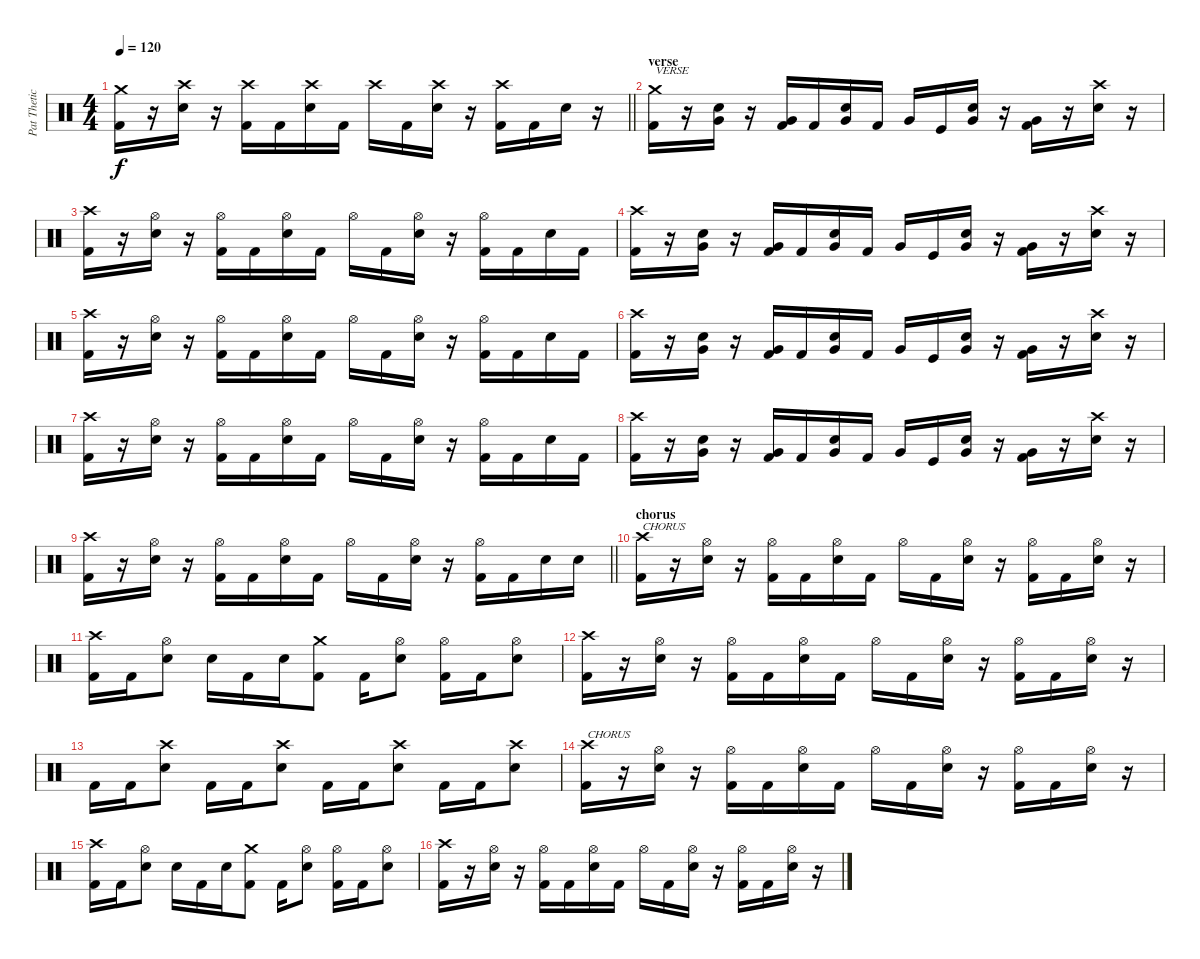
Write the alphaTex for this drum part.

\track ("Pat Thetic" "Pat Thetic") {instrument percussion}
\staff {score}
\articulation defaults
\ts (4 4)
\tempo 120
\clef neutral
\barLineRight lightlight
\ks c
("Crash medium (hit)" "Kick (hit) 2").16{dy f} r.16 ("Crash high (hit)" "Snare (hit) 2").16 r.16 ("Crash high (hit)" "Kick (hit) 2").16 "Kick (hit) 2".16 ("Crash high (hit)" "Snare (hit) 2").16 "Kick (hit) 2".16 "Crash high (hit)".16 "Kick (hit) 2".16 ("Crash high (hit)" "Snare (hit) 2").16 r.16 ("Crash high (hit)" "Kick (hit) 2").16 "Kick (hit) 2".16 "Snare (hit) 2".16 r.16 |
\section ("" "verse")
("Crash medium (hit)" "Kick (hit) 2").16{txt "VERSE"} r.16 ("Snare (hit) 2" "Very Low Tom (hit)").16 r.16 ("Very Low Tom (hit)" "Kick (hit) 2").16 "Kick (hit) 2".16 ("Snare (hit) 2" "Very Low Tom (hit)").16 "Kick (hit) 2".16 "Very Low Tom (hit)".16 "Kick (hit)".16 ("Snare (hit) 2" "Very Low Tom (hit)").16 r.16 ("Very Low Tom (hit)" "Kick (hit) 2").16 r.16 ("Crash high (hit)" "Snare (hit) 2").16 r.16 |
("Crash high (hit)" "Kick (hit) 2").16 r.16 ("Hi-Hat (open)" "Snare (hit) 2").16 r.16 ("Hi-Hat (open)" "Kick (hit) 2").16 "Kick (hit) 2".16 ("Hi-Hat (open)" "Snare (hit) 2").16 "Kick (hit) 2".16 "Hi-Hat (open)".16 "Kick (hit) 2".16 ("Hi-Hat (open)" "Snare (hit) 2").16 r.16 ("Hi-Hat (open)" "Kick (hit) 2").16 "Kick (hit) 2".16 "Snare (hit) 2".16 "Kick (hit) 2".16 |
("Crash high (hit)" "Kick (hit) 2").16 r.16 ("Snare (hit) 2" "Very Low Tom (hit)").16 r.16 ("Very Low Tom (hit)" "Kick (hit) 2").16 "Kick (hit) 2".16 ("Snare (hit) 2" "Very Low Tom (hit)").16 "Kick (hit) 2".16 "Very Low Tom (hit)".16 "Kick (hit)".16 ("Snare (hit) 2" "Very Low Tom (hit)").16 r.16 ("Very Low Tom (hit)" "Kick (hit) 2").16 r.16 ("Crash high (hit)" "Snare (hit) 2").16 r.16 |
("Crash high (hit)" "Kick (hit) 2").16 r.16 ("Hi-Hat (open)" "Snare (hit) 2").16 r.16 ("Hi-Hat (open)" "Kick (hit) 2").16 "Kick (hit) 2".16 ("Hi-Hat (open)" "Snare (hit) 2").16 "Kick (hit) 2".16 "Hi-Hat (open)".16 "Kick (hit) 2".16 ("Hi-Hat (open)" "Snare (hit) 2").16 r.16 ("Hi-Hat (open)" "Kick (hit) 2").16 "Kick (hit) 2".16 "Snare (hit) 2".16 "Kick (hit) 2".16 |
("Crash high (hit)" "Kick (hit) 2").16 r.16 ("Snare (hit) 2" "Very Low Tom (hit)").16 r.16 ("Very Low Tom (hit)" "Kick (hit) 2").16 "Kick (hit) 2".16 ("Snare (hit) 2" "Very Low Tom (hit)").16 "Kick (hit) 2".16 "Very Low Tom (hit)".16 "Kick (hit)".16 ("Snare (hit) 2" "Very Low Tom (hit)").16 r.16 ("Very Low Tom (hit)" "Kick (hit) 2").16 r.16 ("Crash high (hit)" "Snare (hit) 2").16 r.16 |
("Crash high (hit)" "Kick (hit) 2").16 r.16 ("Hi-Hat (open)" "Snare (hit) 2").16 r.16 ("Hi-Hat (open)" "Kick (hit) 2").16 "Kick (hit) 2".16 ("Hi-Hat (open)" "Snare (hit) 2").16 "Kick (hit) 2".16 "Hi-Hat (open)".16 "Kick (hit) 2".16 ("Hi-Hat (open)" "Snare (hit) 2").16 r.16 ("Hi-Hat (open)" "Kick (hit) 2").16 "Kick (hit) 2".16 "Snare (hit) 2".16 "Kick (hit) 2".16 |
("Crash high (hit)" "Kick (hit) 2").16 r.16 ("Snare (hit) 2" "Very Low Tom (hit)").16 r.16 ("Very Low Tom (hit)" "Kick (hit) 2").16 "Kick (hit) 2".16 ("Snare (hit) 2" "Very Low Tom (hit)").16 "Kick (hit) 2".16 "Very Low Tom (hit)".16 "Kick (hit)".16 ("Snare (hit) 2" "Very Low Tom (hit)").16 r.16 ("Very Low Tom (hit)" "Kick (hit) 2").16 r.16 ("Crash high (hit)" "Snare (hit) 2").16 r.16 |
\barLineRight lightlight
("Crash high (hit)" "Kick (hit) 2").16 r.16 ("Hi-Hat (open)" "Snare (hit) 2").16 r.16 ("Hi-Hat (open)" "Kick (hit) 2").16 "Kick (hit) 2".16 ("Hi-Hat (open)" "Snare (hit) 2").16 "Kick (hit) 2".16 "Hi-Hat (open)".16 "Kick (hit) 2".16 ("Hi-Hat (open)" "Snare (hit) 2").16 r.16 ("Hi-Hat (open)" "Kick (hit) 2").16 "Kick (hit) 2".16 "Snare (hit) 2".16 "Snare (hit) 2".16 |
\section ("" "chorus")
("Crash high (hit)" "Kick (hit) 2").16{txt "CHORUS"} r.16 ("Hi-Hat (open)" "Snare (hit) 2").16 r.16 ("Hi-Hat (open)" "Kick (hit) 2").16 "Kick (hit) 2".16 ("Hi-Hat (open)" "Snare (hit) 2").16 "Kick (hit) 2".16 "Hi-Hat (open)".16 "Kick (hit) 2".16 ("Hi-Hat (open)" "Snare (hit) 2").16 r.16 ("Hi-Hat (open)" "Kick (hit) 2").16 "Kick (hit) 2".16 ("Hi-Hat (open)" "Snare (hit) 2").16 r.16 |
("Crash high (hit)" "Kick (hit) 2").16 "Kick (hit) 2".16 ("Hi-Hat (open)" "Snare (hit) 2").8 "Snare (hit) 2".16 "Kick (hit) 2".16 "Snare (hit) 2".16 ("Crash medium (hit)" "Kick (hit) 2").8 "Kick (hit) 2".16 ("Hi-Hat (open)" "Snare (hit) 2").8 ("Hi-Hat (open)" "Kick (hit) 2").16 "Kick (hit) 2".16 ("Hi-Hat (open)" "Snare (hit) 2").8 |
("Crash high (hit)" "Kick (hit) 2").16 r.16 ("Hi-Hat (open)" "Snare (hit) 2").16 r.16 ("Hi-Hat (open)" "Kick (hit) 2").16 "Kick (hit) 2".16 ("Hi-Hat (open)" "Snare (hit) 2").16 "Kick (hit) 2".16 "Hi-Hat (open)".16 "Kick (hit) 2".16 ("Hi-Hat (open)" "Snare (hit) 2").16 r.16 ("Hi-Hat (open)" "Kick (hit) 2").16 "Kick (hit) 2".16 ("Hi-Hat (open)" "Snare (hit) 2").16 r.16 |
"Kick (hit) 2".16 "Kick (hit) 2".16 ("Crash high (hit)" "Snare (hit) 2").8 "Kick (hit) 2".16 "Kick (hit) 2".16 ("Crash high (hit)" "Snare (hit) 2").8 "Kick (hit) 2".16 "Kick (hit) 2".16 ("Crash high (hit)" "Snare (hit) 2").8 "Kick (hit) 2".16 "Kick (hit) 2".16 ("Crash high (hit)" "Snare (hit) 2").8 |
("Crash high (hit)" "Kick (hit) 2").16{txt "CHORUS"} r.16 ("Hi-Hat (open)" "Snare (hit) 2").16 r.16 ("Hi-Hat (open)" "Kick (hit) 2").16 "Kick (hit) 2".16 ("Hi-Hat (open)" "Snare (hit) 2").16 "Kick (hit) 2".16 "Hi-Hat (open)".16 "Kick (hit) 2".16 ("Hi-Hat (open)" "Snare (hit) 2").16 r.16 ("Hi-Hat (open)" "Kick (hit) 2").16 "Kick (hit) 2".16 ("Hi-Hat (open)" "Snare (hit) 2").16 r.16 |
("Crash high (hit)" "Kick (hit) 2").16 "Kick (hit) 2".16 ("Hi-Hat (open)" "Snare (hit) 2").8 "Snare (hit) 2".16 "Kick (hit) 2".16 "Snare (hit) 2".16 ("Crash medium (hit)" "Kick (hit) 2").8 "Kick (hit) 2".16 ("Hi-Hat (open)" "Snare (hit) 2").8 ("Hi-Hat (open)" "Kick (hit) 2").16 "Kick (hit) 2".16 ("Hi-Hat (open)" "Snare (hit) 2").8 |
("Crash high (hit)" "Kick (hit) 2").16 r.16 ("Hi-Hat (open)" "Snare (hit) 2").16 r.16 ("Hi-Hat (open)" "Kick (hit) 2").16 "Kick (hit) 2".16 ("Hi-Hat (open)" "Snare (hit) 2").16 "Kick (hit) 2".16 "Hi-Hat (open)".16 "Kick (hit) 2".16 ("Hi-Hat (open)" "Snare (hit) 2").16 r.16 ("Hi-Hat (open)" "Kick (hit) 2").16 "Kick (hit) 2".16 ("Hi-Hat (open)" "Snare (hit) 2").16 r.16
